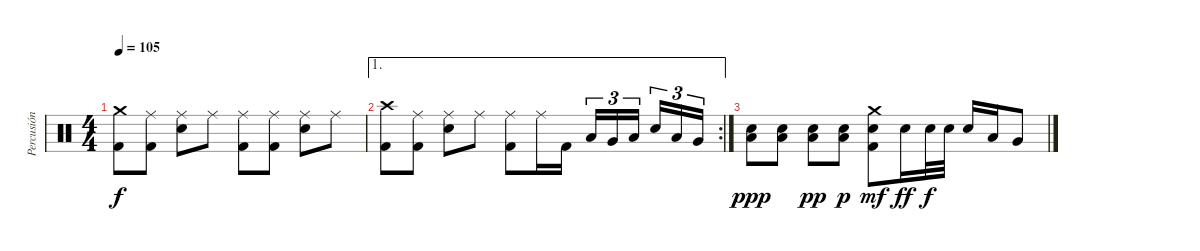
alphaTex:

\track ("Percusión" "Percusión") {instrument percussion}
\staff {score}
\articulation defaults
\ts (4 4)
\tempo 105
\clef neutral
\ks c
("Crash medium (hit)" "Kick (hit) 2").8{dy f} ("Ride (middle)" "Kick (hit) 2").8 ("Ride (middle)" "Snare (hit) 2").8 "Ride (middle)".8 ("Ride (middle)" "Kick (hit) 2").8 ("Ride (middle)" "Kick (hit) 2").8 ("Ride (middle)" "Snare (hit) 2").8 "Ride (middle)".8 |
\ae 1
\rc 2
("Crash high (hit)" "Kick (hit) 2").8 ("Ride (middle)" "Kick (hit) 2").8 ("Ride (middle)" "Snare (hit) 2").8 "Ride (middle)".8 ("Ride (middle)" "Kick (hit) 2").8 "Ride (middle)".16 "Kick (hit) 2".16 "Low Tom (hit)".16{tu (3 2)} "Very Low Tom (hit)".16{tu (3 2)} "Low Floor Tom (hit)".16{tu (3 2) beam splitsecondary} "Snare (hit) 2".16{tu (3 2)} "Low Tom (hit)".16{tu (3 2)} "Very Low Tom (hit)".16{tu (3 2)} |
("Low Floor Tom (hit)" "Snare (hit) 2").8{dy ppp} ("Low Floor Tom (hit)" "Snare (hit) 2").8 ("Low Floor Tom (hit)" "Snare (hit) 2").8{dy pp} ("Low Floor Tom (hit)" "Snare (hit) 2").8{dy p} ("Crash medium (hit)" "Snare (hit) 2" "Kick (hit) 2").8{dy mf} "Snare (hit) 2".16{dy ff} "Snare (hit) 2".32{dy f} "Snare (hit) 2".32 "Snare (hit) 2".16 "Low Tom (hit)".16 "Very Low Tom (hit)".8
